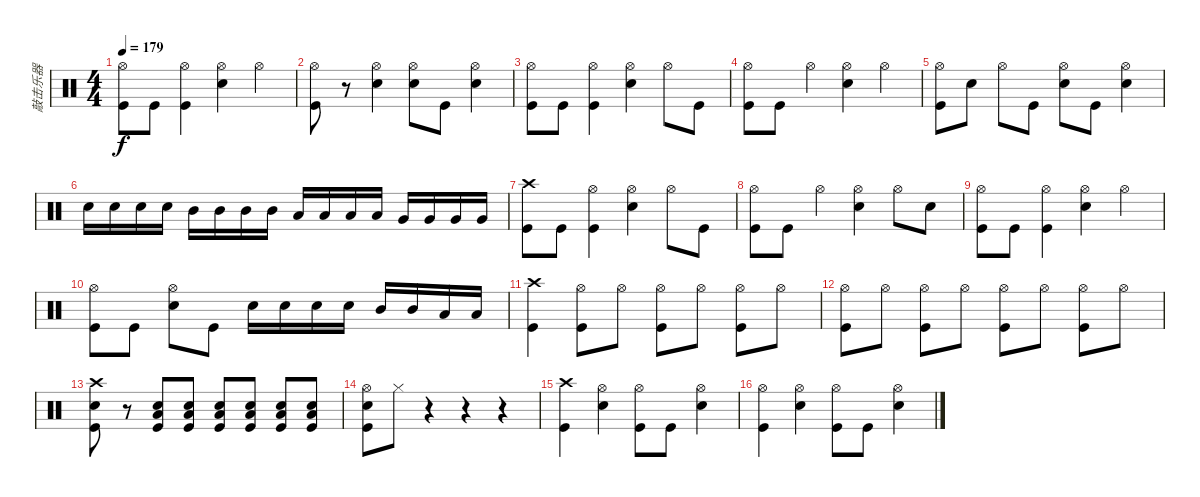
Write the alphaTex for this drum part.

\track ("敲击乐器" "敲击乐器") {instrument percussion}
\staff {score}
\articulation defaults
\ts (4 4)
\tempo 179
\clef neutral
\ks c
("Hi-Hat (open)" "Kick (hit)").8{dy f} "Kick (hit)".8 ("Hi-Hat (open)" "Kick (hit)").4 ("Hi-Hat (open)" "Electric Snare (hit)").4 "Hi-Hat (open)".4 |
("Hi-Hat (open)" "Kick (hit)").8 r.8 ("Hi-Hat (open)" "Electric Snare (hit)").4 ("Hi-Hat (open)" "Electric Snare (hit)").8 "Kick (hit)".8 ("Hi-Hat (open)" "Electric Snare (hit)").4 |
("Hi-Hat (open)" "Kick (hit)").8 "Kick (hit)".8 ("Hi-Hat (open)" "Kick (hit)").4 ("Hi-Hat (open)" "Electric Snare (hit)").4 "Hi-Hat (open)".8 "Kick (hit)".8 |
("Hi-Hat (open)" "Kick (hit)").8 "Kick (hit)".8 "Hi-Hat (open)".4 ("Hi-Hat (open)" "Electric Snare (hit)").4 "Hi-Hat (open)".4 |
("Hi-Hat (open)" "Kick (hit)").8 "Electric Snare (hit)".8 "Hi-Hat (open)".8 "Kick (hit)".8 ("Hi-Hat (open)" "Electric Snare (hit)").8 "Kick (hit)".8 ("Hi-Hat (open)" "Electric Snare (hit)").4 |
"Electric Snare (hit)".16 "Electric Snare (hit)".16 "Electric Snare (hit)".16 "Electric Snare (hit)".16 "Mid Tom (hit)".16 "Mid Tom (hit)".16 "Mid Tom (hit)".16 "Mid Tom (hit)".16 "Low Tom (hit)".16 "Low Tom (hit)".16 "Low Tom (hit)".16 "Low Tom (hit)".16 "Very Low Tom (hit)".16 "Very Low Tom (hit)".16 "Very Low Tom (hit)".16 "Very Low Tom (hit)".16 |
("Crash high (hit)" "Kick (hit)").8 "Kick (hit)".8 ("Hi-Hat (open)" "Kick (hit)").4 ("Hi-Hat (open)" "Electric Snare (hit)").4 "Hi-Hat (open)".8 "Kick (hit)".8 |
("Hi-Hat (open)" "Kick (hit)").8 "Kick (hit)".8 "Hi-Hat (open)".4 ("Hi-Hat (open)" "Electric Snare (hit)").4 "Hi-Hat (open)".8 "Electric Snare (hit)".8 |
("Hi-Hat (open)" "Kick (hit)").8 "Kick (hit)".8 ("Hi-Hat (open)" "Kick (hit)").4 ("Hi-Hat (open)" "Electric Snare (hit)").4 "Hi-Hat (open)".4 |
("Hi-Hat (open)" "Kick (hit)").8 "Kick (hit)".8 ("Hi-Hat (open)" "Electric Snare (hit)").8 "Kick (hit)".8 "Electric Snare (hit)".16 "Electric Snare (hit)".16 "Electric Snare (hit)".16 "Electric Snare (hit)".16 "Mid Tom (hit)".16 "Mid Tom (hit)".16 "Low Tom (hit)".16 "Low Tom (hit)".16 |
("Crash high (hit)" "Kick (hit)").4 ("Hi-Hat (open)" "Kick (hit)").8 "Hi-Hat (open)".8 ("Hi-Hat (open)" "Kick (hit)").8 "Hi-Hat (open)".8 ("Hi-Hat (open)" "Kick (hit)").8 "Hi-Hat (open)".8 |
("Hi-Hat (open)" "Kick (hit)").8 "Hi-Hat (open)".8 ("Hi-Hat (open)" "Kick (hit)").8 "Hi-Hat (open)".8 ("Hi-Hat (open)" "Kick (hit)").8 "Hi-Hat (open)".8 ("Hi-Hat (open)" "Kick (hit)").8 "Hi-Hat (open)".8 |
("Crash high (hit)" "Electric Snare (hit)" "Kick (hit)").8 r.8 ("Electric Snare (hit)" "Kick (hit)" "Low Floor Tom (hit)").8 ("Electric Snare (hit)" "Kick (hit)" "Low Floor Tom (hit)").8 ("Electric Snare (hit)" "Kick (hit)" "Low Floor Tom (hit)").8 ("Electric Snare (hit)" "Kick (hit)" "Low Floor Tom (hit)").8 ("Electric Snare (hit)" "Kick (hit)" "Low Floor Tom (hit)").8 ("Electric Snare (hit)" "Kick (hit)" "Low Floor Tom (hit)").8 |
("Hi-Hat (open)" "Electric Snare (hit)" "Kick (hit)").8 "Hi-Hat (closed)".8 r.4 r.4 r.4 |
("Crash high (hit)" "Kick (hit)").4 ("Hi-Hat (open)" "Electric Snare (hit)").4 ("Hi-Hat (open)" "Kick (hit)").8 "Kick (hit)".8 ("Hi-Hat (open)" "Electric Snare (hit)").4 |
("Hi-Hat (open)" "Kick (hit)").4 ("Hi-Hat (open)" "Electric Snare (hit)").4 ("Hi-Hat (open)" "Kick (hit)").8 "Kick (hit)".8 ("Hi-Hat (open)" "Electric Snare (hit)").4
